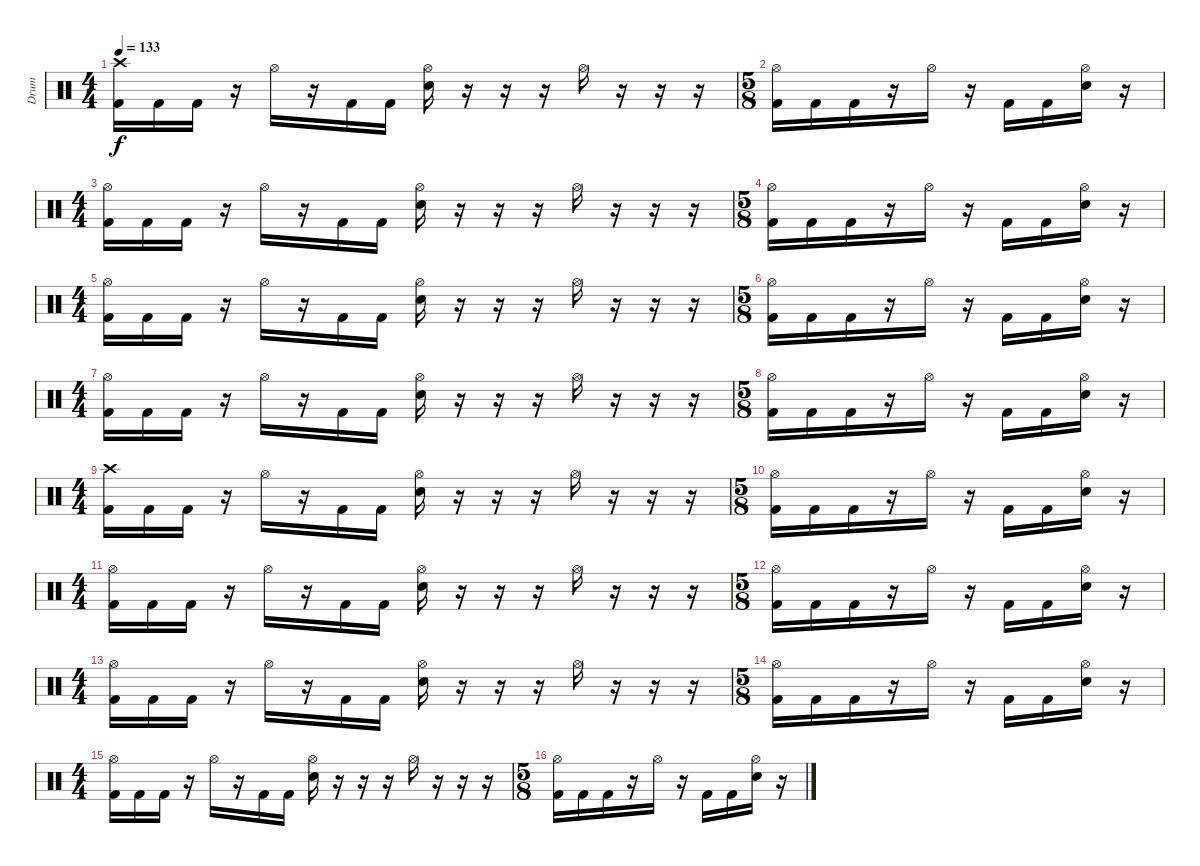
\track ("Drum" "Drum") {instrument percussion}
\staff {score}
\articulation defaults
\ts (4 4)
\tempo 133
\clef neutral
\ks c
("Crash high (hit)" "Kick (hit) 2").16{dy f} "Kick (hit) 2".16 "Kick (hit) 2".16 r.16 "Hi-Hat (open)".16 r.16 "Kick (hit) 2".16 "Kick (hit) 2".16 ("Hi-Hat (open)" "Snare (hit) 2").16 r.16 r.16 r.16 "Hi-Hat (open)".16 r.16 r.16 r.16 |
\ts (5 8)
("Hi-Hat (open)" "Kick (hit) 2").16 "Kick (hit) 2".16 "Kick (hit) 2".16 r.16 "Hi-Hat (open)".16 r.16 "Kick (hit) 2".16 "Kick (hit) 2".16 ("Hi-Hat (open)" "Snare (hit) 2").16 r.16 |
\ts (4 4)
("Hi-Hat (open)" "Kick (hit) 2").16 "Kick (hit) 2".16 "Kick (hit) 2".16 r.16 "Hi-Hat (open)".16 r.16 "Kick (hit) 2".16 "Kick (hit) 2".16 ("Hi-Hat (open)" "Snare (hit) 2").16 r.16 r.16 r.16 "Hi-Hat (open)".16 r.16 r.16 r.16 |
\ts (5 8)
("Hi-Hat (open)" "Kick (hit) 2").16 "Kick (hit) 2".16 "Kick (hit) 2".16 r.16 "Hi-Hat (open)".16 r.16 "Kick (hit) 2".16 "Kick (hit) 2".16 ("Hi-Hat (open)" "Snare (hit) 2").16 r.16 |
\ts (4 4)
("Hi-Hat (open)" "Kick (hit) 2").16 "Kick (hit) 2".16 "Kick (hit) 2".16 r.16 "Hi-Hat (open)".16 r.16 "Kick (hit) 2".16 "Kick (hit) 2".16 ("Hi-Hat (open)" "Snare (hit) 2").16 r.16 r.16 r.16 "Hi-Hat (open)".16 r.16 r.16 r.16 |
\ts (5 8)
("Hi-Hat (open)" "Kick (hit) 2").16 "Kick (hit) 2".16 "Kick (hit) 2".16 r.16 "Hi-Hat (open)".16 r.16 "Kick (hit) 2".16 "Kick (hit) 2".16 ("Hi-Hat (open)" "Snare (hit) 2").16 r.16 |
\ts (4 4)
("Hi-Hat (open)" "Kick (hit) 2").16 "Kick (hit) 2".16 "Kick (hit) 2".16 r.16 "Hi-Hat (open)".16 r.16 "Kick (hit) 2".16 "Kick (hit) 2".16 ("Hi-Hat (open)" "Snare (hit) 2").16 r.16 r.16 r.16 "Hi-Hat (open)".16 r.16 r.16 r.16 |
\ts (5 8)
("Hi-Hat (open)" "Kick (hit) 2").16 "Kick (hit) 2".16 "Kick (hit) 2".16 r.16 "Hi-Hat (open)".16 r.16 "Kick (hit) 2".16 "Kick (hit) 2".16 ("Hi-Hat (open)" "Snare (hit) 2").16 r.16 |
\ts (4 4)
("Crash high (hit)" "Kick (hit) 2").16 "Kick (hit) 2".16 "Kick (hit) 2".16 r.16 "Hi-Hat (open)".16 r.16 "Kick (hit) 2".16 "Kick (hit) 2".16 ("Hi-Hat (open)" "Snare (hit) 2").16 r.16 r.16 r.16 "Hi-Hat (open)".16 r.16 r.16 r.16 |
\ts (5 8)
("Hi-Hat (open)" "Kick (hit) 2").16 "Kick (hit) 2".16 "Kick (hit) 2".16 r.16 "Hi-Hat (open)".16 r.16 "Kick (hit) 2".16 "Kick (hit) 2".16 ("Hi-Hat (open)" "Snare (hit) 2").16 r.16 |
\ts (4 4)
("Hi-Hat (open)" "Kick (hit) 2").16 "Kick (hit) 2".16 "Kick (hit) 2".16 r.16 "Hi-Hat (open)".16 r.16 "Kick (hit) 2".16 "Kick (hit) 2".16 ("Hi-Hat (open)" "Snare (hit) 2").16 r.16 r.16 r.16 "Hi-Hat (open)".16 r.16 r.16 r.16 |
\ts (5 8)
("Hi-Hat (open)" "Kick (hit) 2").16 "Kick (hit) 2".16 "Kick (hit) 2".16 r.16 "Hi-Hat (open)".16 r.16 "Kick (hit) 2".16 "Kick (hit) 2".16 ("Hi-Hat (open)" "Snare (hit) 2").16 r.16 |
\ts (4 4)
("Hi-Hat (open)" "Kick (hit) 2").16 "Kick (hit) 2".16 "Kick (hit) 2".16 r.16 "Hi-Hat (open)".16 r.16 "Kick (hit) 2".16 "Kick (hit) 2".16 ("Hi-Hat (open)" "Snare (hit) 2").16 r.16 r.16 r.16 "Hi-Hat (open)".16 r.16 r.16 r.16 |
\ts (5 8)
("Hi-Hat (open)" "Kick (hit) 2").16 "Kick (hit) 2".16 "Kick (hit) 2".16 r.16 "Hi-Hat (open)".16 r.16 "Kick (hit) 2".16 "Kick (hit) 2".16 ("Hi-Hat (open)" "Snare (hit) 2").16 r.16 |
\ts (4 4)
("Hi-Hat (open)" "Kick (hit) 2").16 "Kick (hit) 2".16 "Kick (hit) 2".16 r.16 "Hi-Hat (open)".16 r.16 "Kick (hit) 2".16 "Kick (hit) 2".16 ("Hi-Hat (open)" "Snare (hit) 2").16 r.16 r.16 r.16 "Hi-Hat (open)".16 r.16 r.16 r.16 |
\ts (5 8)
("Hi-Hat (open)" "Kick (hit) 2").16 "Kick (hit) 2".16 "Kick (hit) 2".16 r.16 "Hi-Hat (open)".16 r.16 "Kick (hit) 2".16 "Kick (hit) 2".16 ("Hi-Hat (open)" "Snare (hit) 2").16 r.16
